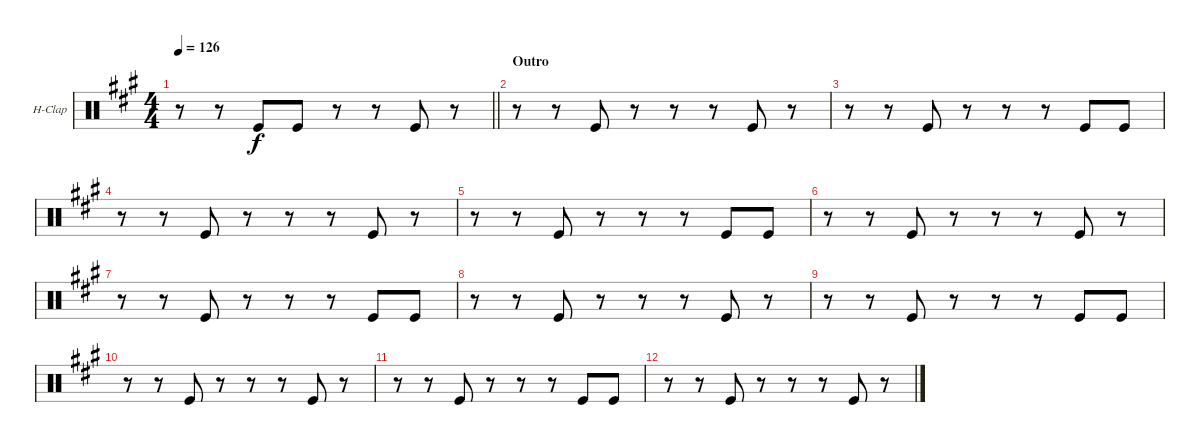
\bracketExtendMode groupsimilarinstruments
\firstSystemTrackNameOrientation horizontal
\otherSystemsTrackNameOrientation horizontal
\track ("Hand Clap" "H-Clap") {instrument percussion}
\staff {score}
\articulation defaults
\ts (4 4)
\tempo 126
\clef neutral
\barLineRight lightlight
\ks a
r.8{dy f} r.8 "Kick (hit)".8 "Kick (hit)".8 r.8 r.8 "Kick (hit)".8 r.8 |
\section ("" "Outro")
r.8 r.8 "Kick (hit)".8 r.8 r.8 r.8 "Kick (hit)".8 r.8 |
r.8 r.8 "Kick (hit)".8 r.8 r.8 r.8 "Kick (hit)".8 "Kick (hit)".8 |
r.8 r.8 "Kick (hit)".8 r.8 r.8 r.8 "Kick (hit)".8 r.8 |
r.8 r.8 "Kick (hit)".8 r.8 r.8 r.8 "Kick (hit)".8 "Kick (hit)".8 |
r.8 r.8 "Kick (hit)".8 r.8 r.8 r.8 "Kick (hit)".8 r.8 |
r.8 r.8 "Kick (hit)".8 r.8 r.8 r.8 "Kick (hit)".8 "Kick (hit)".8 |
r.8 r.8 "Kick (hit)".8 r.8 r.8 r.8 "Kick (hit)".8 r.8 |
r.8 r.8 "Kick (hit)".8 r.8 r.8 r.8 "Kick (hit)".8 "Kick (hit)".8 |
r.8 r.8 "Kick (hit)".8 r.8 r.8 r.8 "Kick (hit)".8 r.8 |
r.8 r.8 "Kick (hit)".8 r.8 r.8 r.8 "Kick (hit)".8 "Kick (hit)".8 |
r.8 r.8 "Kick (hit)".8 r.8 r.8 r.8 "Kick (hit)".8 r.8
